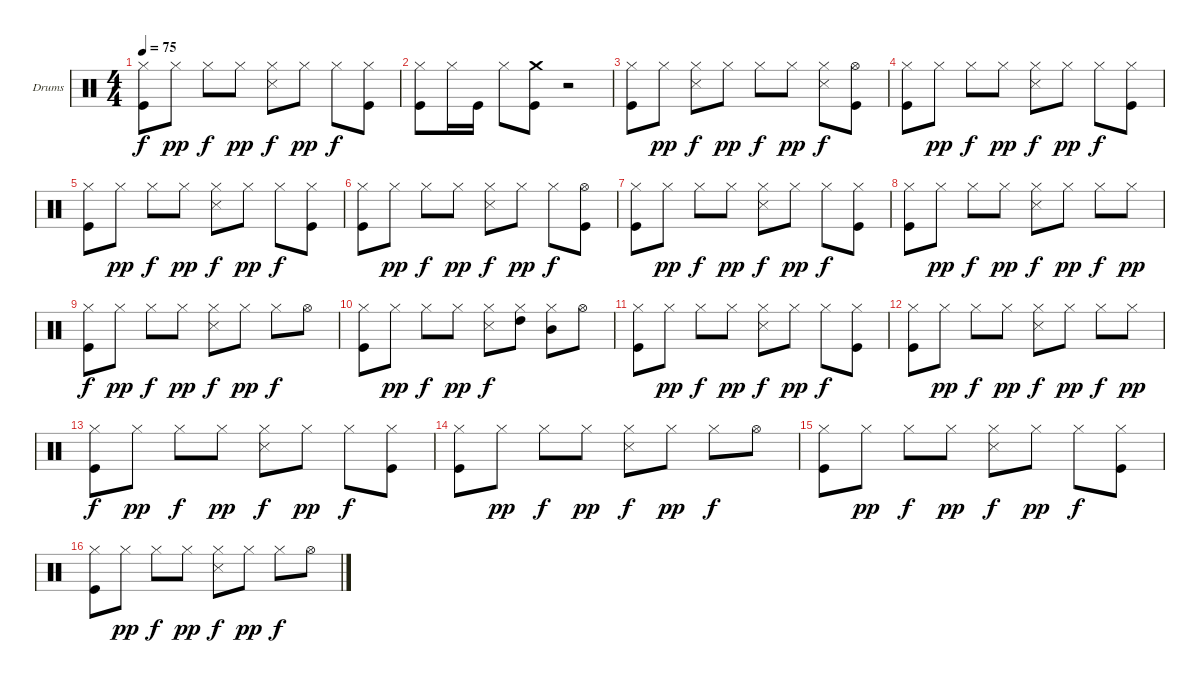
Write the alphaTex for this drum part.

\bracketExtendMode groupsimilarinstruments
\firstSystemTrackNameOrientation horizontal
\otherSystemsTrackNameOrientation horizontal
\track ("Drumkit" "Drums") {instrument percussion}
\staff {score}
\articulation defaults
\ts (4 4)
\tempo 75
\clef neutral
\ks c
("Kick (hit)" "Hi-Hat (closed)").8{dy f} "Hi-Hat (closed)".8{dy pp} "Hi-Hat (closed)".8{dy f} "Hi-Hat (closed)".8{dy pp} ("Snare (side stick) 3" "Hi-Hat (closed)").8{dy f} "Hi-Hat (closed)".8{dy pp} "Hi-Hat (closed)".8{dy f} ("Kick (hit)" "Hi-Hat (closed)").8 |
("Kick (hit)" "Hi-Hat (closed)").8 "Hi-Hat (closed)".16 "Kick (hit)".16 "Hi-Hat (closed)".8 ("Kick (hit)" "Crash medium (hit)").8 r.2 |
("Kick (hit)" "Hi-Hat (closed)").8 "Hi-Hat (closed)".8{dy pp} ("Snare (side stick) 3" "Hi-Hat (closed)").8{dy f} "Hi-Hat (closed)".8{dy pp} "Hi-Hat (closed)".8{dy f} "Hi-Hat (closed)".8{dy pp} ("Snare (side stick) 3" "Hi-Hat (closed)").8{dy f} ("Kick (hit)" "Hi-Hat (open)").8 |
("Kick (hit)" "Hi-Hat (closed)").8 "Hi-Hat (closed)".8{dy pp} "Hi-Hat (closed)".8{dy f} "Hi-Hat (closed)".8{dy pp} ("Snare (side stick) 3" "Hi-Hat (closed)").8{dy f} "Hi-Hat (closed)".8{dy pp} "Hi-Hat (closed)".8{dy f} ("Kick (hit)" "Hi-Hat (closed)").8 |
("Hi-Hat (closed)" "Kick (hit)").8 "Hi-Hat (closed)".8{dy pp} "Hi-Hat (closed)".8{dy f} "Hi-Hat (closed)".8{dy pp} ("Snare (side stick) 3" "Hi-Hat (closed)").8{dy f} "Hi-Hat (closed)".8{dy pp} "Hi-Hat (closed)".8{dy f} ("Kick (hit)" "Hi-Hat (closed)").8 |
("Hi-Hat (closed)" "Kick (hit)").8 "Hi-Hat (closed)".8{dy pp} "Hi-Hat (closed)".8{dy f} "Hi-Hat (closed)".8{dy pp} ("Hi-Hat (closed)" "Snare (side stick) 3").8{dy f} "Hi-Hat (closed)".8{dy pp} "Hi-Hat (closed)".8{dy f} ("Kick (hit)" "Hi-Hat (open)").8 |
("Kick (hit)" "Hi-Hat (closed)").8 "Hi-Hat (closed)".8{dy pp} "Hi-Hat (closed)".8{dy f} "Hi-Hat (closed)".8{dy pp} ("Snare (side stick) 3" "Hi-Hat (closed)").8{dy f} "Hi-Hat (closed)".8{dy pp} "Hi-Hat (closed)".8{dy f} ("Kick (hit)" "Hi-Hat (closed)").8 |
("Kick (hit)" "Hi-Hat (closed)").8 "Hi-Hat (closed)".8{dy pp} "Hi-Hat (closed)".8{dy f} "Hi-Hat (closed)".8{dy pp} ("Snare (side stick) 3" "Hi-Hat (closed)").8{dy f} "Hi-Hat (closed)".8{dy pp} "Hi-Hat (closed)".8{dy f} "Hi-Hat (closed)".8{dy pp} |
("Kick (hit)" "Hi-Hat (closed)").8{dy f} "Hi-Hat (closed)".8{dy pp} "Hi-Hat (closed)".8{dy f} "Hi-Hat (closed)".8{dy pp} ("Snare (side stick) 3" "Hi-Hat (closed)").8{dy f} "Hi-Hat (closed)".8{dy pp} "Hi-Hat (closed)".8{dy f} "Hi-Hat (open)".8 |
("Kick (hit)" "Hi-Hat (closed)").8 "Hi-Hat (closed)".8{dy pp} "Hi-Hat (closed)".8{dy f} "Hi-Hat (closed)".8{dy pp} ("Snare (side stick) 3" "Hi-Hat (closed)").8{dy f} ("High Tom (hit)" "Hi-Hat (closed)").8 ("Mid Tom (hit)" "Hi-Hat (closed)").8 "Hi-Hat (open)".8 |
("Kick (hit)" "Hi-Hat (closed)").8 "Hi-Hat (closed)".8{dy pp} "Hi-Hat (closed)".8{dy f} "Hi-Hat (closed)".8{dy pp} ("Snare (side stick) 3" "Hi-Hat (closed)").8{dy f} "Hi-Hat (closed)".8{dy pp} "Hi-Hat (closed)".8{dy f} ("Kick (hit)" "Hi-Hat (closed)").8 |
("Kick (hit)" "Hi-Hat (closed)").8 "Hi-Hat (closed)".8{dy pp} "Hi-Hat (closed)".8{dy f} "Hi-Hat (closed)".8{dy pp} ("Snare (side stick) 3" "Hi-Hat (closed)").8{dy f} "Hi-Hat (closed)".8{dy pp} "Hi-Hat (closed)".8{dy f} "Hi-Hat (closed)".8{dy pp} |
("Kick (hit)" "Hi-Hat (closed)").8{dy f} "Hi-Hat (closed)".8{dy pp} "Hi-Hat (closed)".8{dy f} "Hi-Hat (closed)".8{dy pp} ("Snare (side stick) 3" "Hi-Hat (closed)").8{dy f} "Hi-Hat (closed)".8{dy pp} "Hi-Hat (closed)".8{dy f} ("Kick (hit)" "Hi-Hat (closed)").8 |
("Kick (hit)" "Hi-Hat (closed)").8 "Hi-Hat (closed)".8{dy pp} "Hi-Hat (closed)".8{dy f} "Hi-Hat (closed)".8{dy pp} ("Snare (side stick) 3" "Hi-Hat (closed)").8{dy f} "Hi-Hat (closed)".8{dy pp} "Hi-Hat (closed)".8{dy f} "Hi-Hat (open)".8 |
("Kick (hit)" "Hi-Hat (closed)").8 "Hi-Hat (closed)".8{dy pp} "Hi-Hat (closed)".8{dy f} "Hi-Hat (closed)".8{dy pp} ("Snare (side stick) 3" "Hi-Hat (closed)").8{dy f} "Hi-Hat (closed)".8{dy pp} "Hi-Hat (closed)".8{dy f} ("Kick (hit)" "Hi-Hat (closed)").8 |
("Kick (hit)" "Hi-Hat (closed)").8 "Hi-Hat (closed)".8{dy pp} "Hi-Hat (closed)".8{dy f} "Hi-Hat (closed)".8{dy pp} ("Snare (side stick) 3" "Hi-Hat (closed)").8{dy f} "Hi-Hat (closed)".8{dy pp} "Hi-Hat (closed)".8{dy f} "Hi-Hat (open)".8
